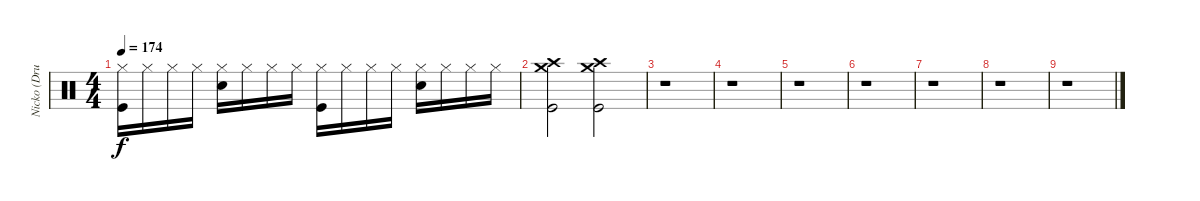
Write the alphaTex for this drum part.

\track ("Nicko (Drums)" "Nicko (Dru") {instrument percussion}
\staff {score}
\articulation defaults
\ts (4 4)
\tempo 174
\clef neutral
\ks c
("Hi-Hat (closed)" "Kick (hit)").16{dy f} "Hi-Hat (closed)".16 "Hi-Hat (closed)".16 "Hi-Hat (closed)".16 ("Hi-Hat (closed)" "Electric Snare (hit)").16 "Hi-Hat (closed)".16 "Hi-Hat (closed)".16 "Hi-Hat (closed)".16 ("Hi-Hat (closed)" "Kick (hit)").16 "Hi-Hat (closed)".16 "Hi-Hat (closed)".16 "Hi-Hat (closed)".16 ("Hi-Hat (closed)" "Electric Snare (hit)").16 "Hi-Hat (closed)".16 "Hi-Hat (closed)".16 "Hi-Hat (closed)".16 |
("Crash high (hit)" "Crash medium (hit)" "Kick (hit)").2 ("Crash high (hit)" "Crash medium (hit)" "Kick (hit)").2 |
r.1 |
r.1 |
r.1 |
r.1 |
r.1 |
r.1 |
r.1
